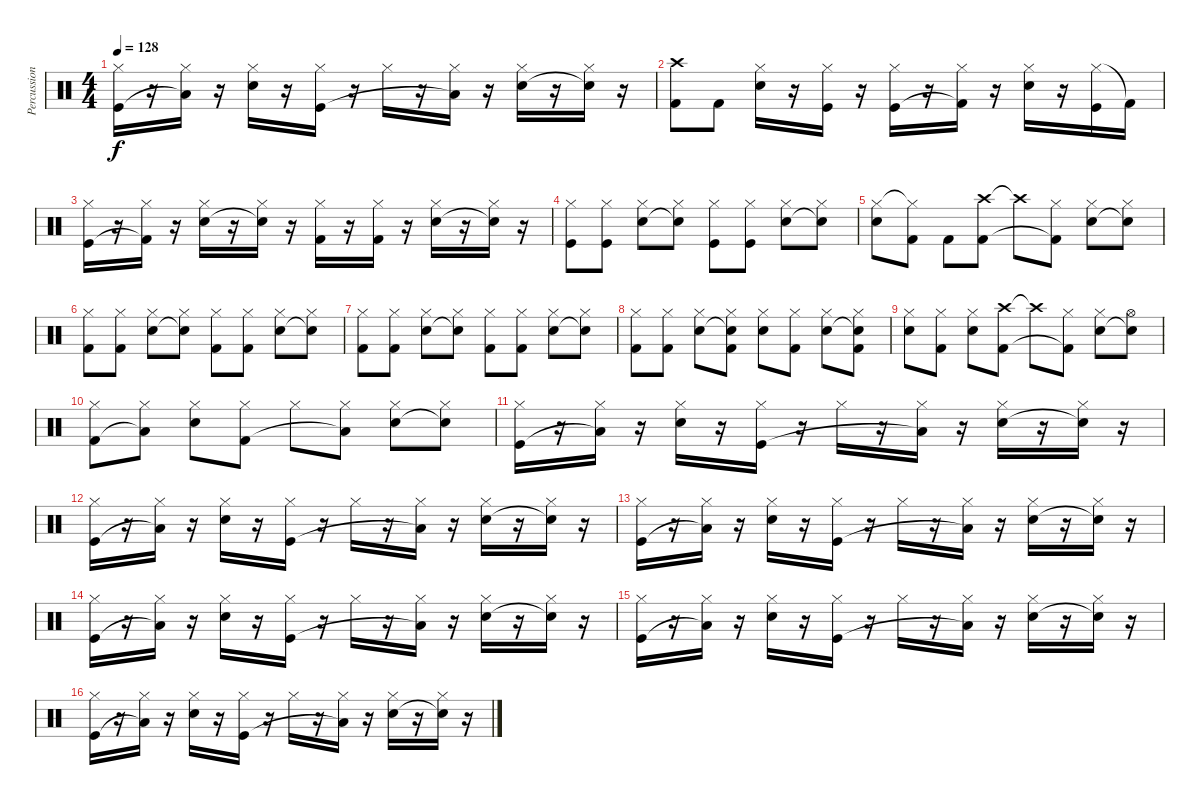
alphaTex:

\track ("Percussion" "Percussion") {instrument percussion}
\staff {score}
\articulation defaults
\ts (4 4)
\tempo 128
\clef neutral
\ks c
("Hi-Hat (closed)" "Kick (hit)").16{dy f} r.16 ("Hi-Hat (closed)" "Low Floor Tom (hit)"{t}).16 r.16 ("Hi-Hat (closed)" "Snare (hit) 2").16 r.16 ("Hi-Hat (closed)" "Kick (hit)").16 r.16 "Hi-Hat (closed)".16 r.16 ("Hi-Hat (closed)" "Low Floor Tom (hit)"{t}).16 r.16 ("Hi-Hat (closed)" "Snare (hit) 2").16 r.16 ("Hi-Hat (closed)" "Electric Snare (hit)"{t}).16 r.16 |
("Crash high (hit)" "Kick (hit) 2").8 "Kick (hit) 2".8 ("Hi-Hat (closed)" "Snare (hit) 2").16 r.16 ("Hi-Hat (closed)" "Kick (hit)").16 r.16 ("Hi-Hat (closed)" "Kick (hit)").16 r.16 ("Hi-Hat (closed)" "Kick (hit) 2"{t}).16 r.16 ("Hi-Hat (closed)" "Snare (hit) 2").16 r.16 ("Hi-Hat (closed)" "Kick (hit)").16 "Kick (hit) 2"{t}.16 |
("Hi-Hat (closed)" "Kick (hit)").16 r.16 ("Hi-Hat (closed)" "Kick (hit) 2"{t}).16 r.16 ("Hi-Hat (closed)" "Snare (hit) 2").16 r.16 ("Hi-Hat (closed)" "Electric Snare (hit)"{t}).16 r.16 ("Hi-Hat (closed)" "Kick (hit) 2").16 r.16 ("Hi-Hat (closed)" "Kick (hit) 2").16 r.16 ("Hi-Hat (closed)" "Snare (hit) 2").16 r.16 ("Hi-Hat (closed)" "Electric Snare (hit)"{t}).16 r.16 |
("Hi-Hat (closed)" "Kick (hit)").8 ("Hi-Hat (closed)" "Kick (hit)").8 ("Hi-Hat (closed)" "Snare (hit) 2").8 ("Hi-Hat (closed)" "Electric Snare (hit)"{t}).8 ("Hi-Hat (closed)" "Kick (hit)").8 ("Hi-Hat (closed)" "Kick (hit)").8 ("Hi-Hat (closed)" "Snare (hit) 2").8 ("Hi-Hat (closed)" "Electric Snare (hit)"{t}).8 |
("Hi-Hat (closed)" "Snare (hit) 2").8 ("Hi-Hat (closed)"{t} "Kick (hit) 2").8 "Kick (hit) 2".8 ("Crash high (hit)" "Kick (hit) 2").8 "Crash high (hit)"{t}.8 ("Hi-Hat (closed)" "Kick (hit) 2"{t}).8 ("Hi-Hat (closed)" "Snare (hit) 2").8 ("Hi-Hat (closed)" "Electric Snare (hit)"{t}).8 |
("Hi-Hat (closed)" "Kick (hit) 2").8 ("Hi-Hat (closed)" "Kick (hit) 2").8 ("Hi-Hat (closed)" "Snare (hit) 2").8 ("Hi-Hat (closed)" "Electric Snare (hit)"{t}).8 ("Hi-Hat (closed)" "Kick (hit) 2").8 ("Hi-Hat (closed)" "Kick (hit) 2").8 ("Hi-Hat (closed)" "Snare (hit) 2").8 ("Hi-Hat (closed)" "Electric Snare (hit)"{t}).8 |
("Hi-Hat (closed)" "Kick (hit) 2").8 ("Hi-Hat (closed)" "Kick (hit) 2").8 ("Hi-Hat (closed)" "Snare (hit) 2").8 ("Hi-Hat (closed)" "Electric Snare (hit)"{t}).8 ("Hi-Hat (closed)" "Kick (hit) 2").8 ("Hi-Hat (closed)" "Kick (hit) 2").8 ("Hi-Hat (closed)" "Snare (hit) 2").8 ("Hi-Hat (closed)" "Electric Snare (hit)"{t}).8 |
("Hi-Hat (closed)" "Kick (hit) 2").8 ("Hi-Hat (closed)" "Kick (hit) 2").8 ("Hi-Hat (closed)" "Snare (hit) 2").8 ("Hi-Hat (closed)" "Electric Snare (hit)"{t} "Kick (hit) 2").8 ("Hi-Hat (closed)" "Snare (hit) 2").8 ("Hi-Hat (closed)" "Kick (hit) 2").8 ("Hi-Hat (closed)" "Snare (hit) 2").8 ("Hi-Hat (closed)" "Electric Snare (hit)"{t} "Kick (hit) 2").8 |
("Hi-Hat (closed)" "Snare (hit) 2").8 ("Hi-Hat (closed)" "Kick (hit) 2").8 ("Hi-Hat (closed)" "Snare (hit) 2").8 ("Crash high (hit)" "Kick (hit) 2").8 "Crash high (hit)"{t}.8 ("Hi-Hat (closed)" "Kick (hit) 2"{t}).8 ("Hi-Hat (closed)" "Snare (hit) 2").8 ("Hi-Hat (open)" "Electric Snare (hit)"{t}).8 |
("Hi-Hat (closed)" "Kick (hit) 2").8 ("Hi-Hat (closed)" "Low Floor Tom (hit)"{t}).8 ("Hi-Hat (closed)" "Snare (hit) 2").8 ("Hi-Hat (closed)" "Kick (hit) 2").8 "Hi-Hat (closed)".8 ("Hi-Hat (closed)" "Low Floor Tom (hit)"{t}).8 ("Hi-Hat (closed)" "Snare (hit) 2").8 ("Hi-Hat (closed)" "Electric Snare (hit)"{t}).8 |
("Hi-Hat (closed)" "Kick (hit)").16 r.16 ("Hi-Hat (closed)" "Low Floor Tom (hit)"{t}).16 r.16 ("Hi-Hat (closed)" "Snare (hit) 2").16 r.16 ("Hi-Hat (closed)" "Kick (hit)").16 r.16 "Hi-Hat (closed)".16 r.16 ("Hi-Hat (closed)" "Low Floor Tom (hit)"{t}).16 r.16 ("Hi-Hat (closed)" "Snare (hit) 2").16 r.16 ("Hi-Hat (closed)" "Electric Snare (hit)"{t}).16 r.16 |
("Hi-Hat (closed)" "Kick (hit)").16 r.16 ("Hi-Hat (closed)" "Low Floor Tom (hit)"{t}).16 r.16 ("Hi-Hat (closed)" "Snare (hit) 2").16 r.16 ("Hi-Hat (closed)" "Kick (hit)").16 r.16 "Hi-Hat (closed)".16 r.16 ("Hi-Hat (closed)" "Low Floor Tom (hit)"{t}).16 r.16 ("Hi-Hat (closed)" "Snare (hit) 2").16 r.16 ("Hi-Hat (closed)" "Electric Snare (hit)"{t}).16 r.16 |
("Hi-Hat (closed)" "Kick (hit)").16 r.16 ("Hi-Hat (closed)" "Low Floor Tom (hit)"{t}).16 r.16 ("Hi-Hat (closed)" "Snare (hit) 2").16 r.16 ("Hi-Hat (closed)" "Kick (hit)").16 r.16 "Hi-Hat (closed)".16 r.16 ("Hi-Hat (closed)" "Low Floor Tom (hit)"{t}).16 r.16 ("Hi-Hat (closed)" "Snare (hit) 2").16 r.16 ("Hi-Hat (closed)" "Electric Snare (hit)"{t}).16 r.16 |
("Hi-Hat (closed)" "Kick (hit)").16 r.16 ("Hi-Hat (closed)" "Low Floor Tom (hit)"{t}).16 r.16 ("Hi-Hat (closed)" "Snare (hit) 2").16 r.16 ("Hi-Hat (closed)" "Kick (hit)").16 r.16 "Hi-Hat (closed)".16 r.16 ("Hi-Hat (closed)" "Low Floor Tom (hit)"{t}).16 r.16 ("Hi-Hat (closed)" "Snare (hit) 2").16 r.16 ("Hi-Hat (closed)" "Electric Snare (hit)"{t}).16 r.16 |
("Hi-Hat (closed)" "Kick (hit)").16 r.16 ("Hi-Hat (closed)" "Low Floor Tom (hit)"{t}).16 r.16 ("Hi-Hat (closed)" "Snare (hit) 2").16 r.16 ("Hi-Hat (closed)" "Kick (hit)").16 r.16 "Hi-Hat (closed)".16 r.16 ("Hi-Hat (closed)" "Low Floor Tom (hit)"{t}).16 r.16 ("Hi-Hat (closed)" "Snare (hit) 2").16 r.16 ("Hi-Hat (closed)" "Electric Snare (hit)"{t}).16 r.16 |
("Hi-Hat (closed)" "Kick (hit)").16 r.16 ("Hi-Hat (closed)" "Low Floor Tom (hit)"{t}).16 r.16 ("Hi-Hat (closed)" "Snare (hit) 2").16 r.16 ("Hi-Hat (closed)" "Kick (hit)").16 r.16 "Hi-Hat (closed)".16 r.16 ("Hi-Hat (closed)" "Low Floor Tom (hit)"{t}).16 r.16 ("Hi-Hat (closed)" "Snare (hit) 2").16 r.16 ("Hi-Hat (closed)" "Electric Snare (hit)"{t}).16 r.16
